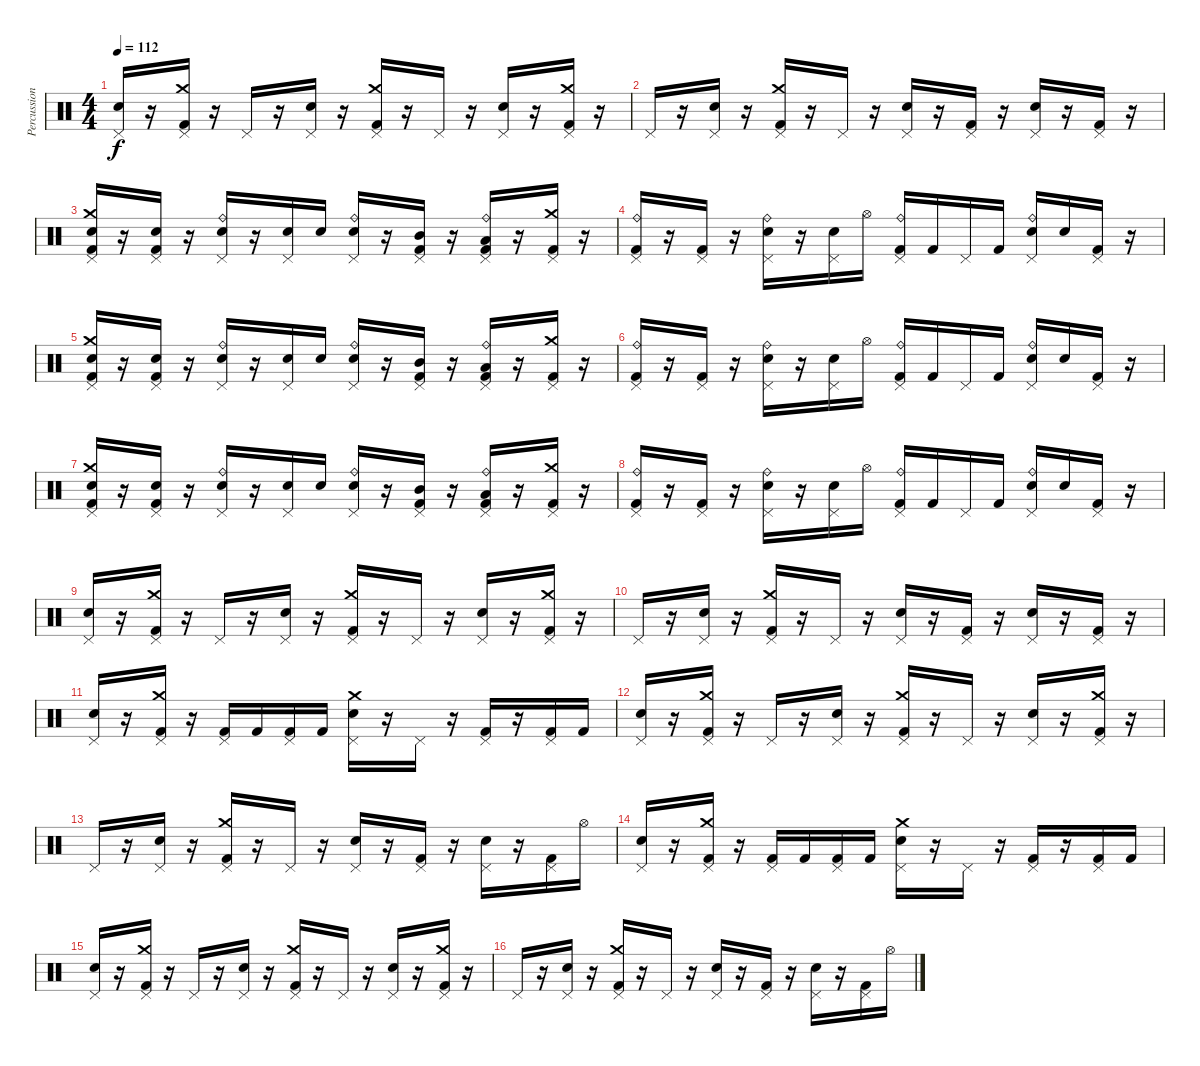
\track ("Percussion" "Percussion") {instrument percussion}
\staff {score}
\articulation defaults
\ts (4 4)
\tempo 112
\clef neutral
\ks c
("Pedal Hi-Hat (hit)" "Snare (hit) 2").16{dy f} r.16 ("Crash medium (hit)" "Pedal Hi-Hat (hit)" "Kick (hit) 2").16 r.16 "Pedal Hi-Hat (hit)".16 r.16 ("Pedal Hi-Hat (hit)" "Snare (hit) 2").16 r.16 ("Crash medium (hit)" "Pedal Hi-Hat (hit)" "Kick (hit) 2").16 r.16 "Pedal Hi-Hat (hit)".16 r.16 ("Pedal Hi-Hat (hit)" "Snare (hit) 2").16 r.16 ("Crash medium (hit)" "Pedal Hi-Hat (hit)" "Kick (hit) 2").16 r.16 |
"Pedal Hi-Hat (hit)".16 r.16 ("Pedal Hi-Hat (hit)" "Snare (hit) 2").16 r.16 ("Crash medium (hit)" "Pedal Hi-Hat (hit)" "Kick (hit) 2").16 r.16 "Pedal Hi-Hat (hit)".16 r.16 ("Pedal Hi-Hat (hit)" "Snare (hit) 2").16 r.16 ("Pedal Hi-Hat (hit)" "Kick (hit) 2").16 r.16 ("Pedal Hi-Hat (hit)" "Snare (hit) 2").16 r.16 ("Pedal Hi-Hat (hit)" "Kick (hit) 2").16 r.16 |
("Crash medium (hit)" "Pedal Hi-Hat (hit)" "Snare (hit) 2" "Kick (hit) 2").16 r.16 ("Pedal Hi-Hat (hit)" "Snare (hit) 2" "Kick (hit) 2").16 r.16 ("Ride (bell)" "Pedal Hi-Hat (hit)" "Snare (hit) 2").16 r.16 ("Pedal Hi-Hat (hit)" "Snare (hit) 2").16 "Snare (hit) 2".16 ("Ride (bell)" "Pedal Hi-Hat (hit)" "Snare (hit) 2").16 r.16 ("Pedal Hi-Hat (hit)" "Mid Tom (hit)" "Kick (hit) 2").16 r.16 ("Ride (bell)" "Pedal Hi-Hat (hit)" "Low Tom (hit)" "Kick (hit) 2").16 r.16 ("Crash medium (hit)" "Pedal Hi-Hat (hit)" "Kick (hit) 2").16 r.16 |
("Pedal Hi-Hat (hit)" "Ride (bell)" "Kick (hit) 2").16 r.16 ("Pedal Hi-Hat (hit)" "Kick (hit) 2").16 r.16 ("Pedal Hi-Hat (hit)" "Ride (bell)" "Snare (hit) 2").16 r.16 ("Pedal Hi-Hat (hit)" "Snare (hit) 2").16 "Hi-Hat (open)".16 ("Pedal Hi-Hat (hit)" "Ride (bell)" "Kick (hit) 2").16 "Kick (hit) 2".16 "Pedal Hi-Hat (hit)".16 "Kick (hit) 2".16 ("Pedal Hi-Hat (hit)" "Ride (bell)" "Snare (hit) 2").16 "Snare (hit) 2".16 ("Pedal Hi-Hat (hit)" "Kick (hit) 2").16 r.16 |
("Crash medium (hit)" "Pedal Hi-Hat (hit)" "Snare (hit) 2" "Kick (hit) 2").16 r.16 ("Pedal Hi-Hat (hit)" "Snare (hit) 2" "Kick (hit) 2").16 r.16 ("Ride (bell)" "Pedal Hi-Hat (hit)" "Snare (hit) 2").16 r.16 ("Pedal Hi-Hat (hit)" "Snare (hit) 2").16 "Snare (hit) 2".16 ("Ride (bell)" "Pedal Hi-Hat (hit)" "Snare (hit) 2").16 r.16 ("Pedal Hi-Hat (hit)" "Mid Tom (hit)" "Kick (hit) 2").16 r.16 ("Ride (bell)" "Pedal Hi-Hat (hit)" "Low Tom (hit)" "Kick (hit) 2").16 r.16 ("Crash medium (hit)" "Pedal Hi-Hat (hit)" "Kick (hit) 2").16 r.16 |
("Pedal Hi-Hat (hit)" "Ride (bell)" "Kick (hit) 2").16 r.16 ("Pedal Hi-Hat (hit)" "Kick (hit) 2").16 r.16 ("Pedal Hi-Hat (hit)" "Ride (bell)" "Snare (hit) 2").16 r.16 ("Pedal Hi-Hat (hit)" "Snare (hit) 2").16 "Hi-Hat (open)".16 ("Pedal Hi-Hat (hit)" "Ride (bell)" "Kick (hit) 2").16 "Kick (hit) 2".16 "Pedal Hi-Hat (hit)".16 "Kick (hit) 2".16 ("Pedal Hi-Hat (hit)" "Ride (bell)" "Snare (hit) 2").16 "Snare (hit) 2".16 ("Pedal Hi-Hat (hit)" "Kick (hit) 2").16 r.16 |
("Crash medium (hit)" "Pedal Hi-Hat (hit)" "Snare (hit) 2" "Kick (hit) 2").16 r.16 ("Pedal Hi-Hat (hit)" "Snare (hit) 2" "Kick (hit) 2").16 r.16 ("Ride (bell)" "Pedal Hi-Hat (hit)" "Snare (hit) 2").16 r.16 ("Pedal Hi-Hat (hit)" "Snare (hit) 2").16 "Snare (hit) 2".16 ("Ride (bell)" "Pedal Hi-Hat (hit)" "Snare (hit) 2").16 r.16 ("Pedal Hi-Hat (hit)" "Mid Tom (hit)" "Kick (hit) 2").16 r.16 ("Ride (bell)" "Pedal Hi-Hat (hit)" "Low Tom (hit)" "Kick (hit) 2").16 r.16 ("Crash medium (hit)" "Pedal Hi-Hat (hit)" "Kick (hit) 2").16 r.16 |
("Pedal Hi-Hat (hit)" "Ride (bell)" "Kick (hit) 2").16 r.16 ("Pedal Hi-Hat (hit)" "Kick (hit) 2").16 r.16 ("Pedal Hi-Hat (hit)" "Ride (bell)" "Snare (hit) 2").16 r.16 ("Pedal Hi-Hat (hit)" "Snare (hit) 2").16 "Hi-Hat (open)".16 ("Pedal Hi-Hat (hit)" "Ride (bell)" "Kick (hit) 2").16 "Kick (hit) 2".16 "Pedal Hi-Hat (hit)".16 "Kick (hit) 2".16 ("Pedal Hi-Hat (hit)" "Ride (bell)" "Snare (hit) 2").16 "Snare (hit) 2".16 ("Pedal Hi-Hat (hit)" "Kick (hit) 2").16 r.16 |
("Pedal Hi-Hat (hit)" "Snare (hit) 2").16 r.16 ("Crash medium (hit)" "Pedal Hi-Hat (hit)" "Kick (hit) 2").16 r.16 "Pedal Hi-Hat (hit)".16 r.16 ("Pedal Hi-Hat (hit)" "Snare (hit) 2").16 r.16 ("Crash medium (hit)" "Pedal Hi-Hat (hit)" "Kick (hit) 2").16 r.16 "Pedal Hi-Hat (hit)".16 r.16 ("Pedal Hi-Hat (hit)" "Snare (hit) 2").16 r.16 ("Crash medium (hit)" "Pedal Hi-Hat (hit)" "Kick (hit) 2").16 r.16 |
"Pedal Hi-Hat (hit)".16 r.16 ("Pedal Hi-Hat (hit)" "Snare (hit) 2").16 r.16 ("Crash medium (hit)" "Pedal Hi-Hat (hit)" "Kick (hit) 2").16 r.16 "Pedal Hi-Hat (hit)".16 r.16 ("Pedal Hi-Hat (hit)" "Snare (hit) 2").16 r.16 ("Pedal Hi-Hat (hit)" "Kick (hit) 2").16 r.16 ("Pedal Hi-Hat (hit)" "Snare (hit) 2").16 r.16 ("Pedal Hi-Hat (hit)" "Kick (hit) 2").16 r.16 |
("Pedal Hi-Hat (hit)" "Snare (hit) 2").16 r.16 ("Crash medium (hit)" "Pedal Hi-Hat (hit)" "Kick (hit) 2").16 r.16 ("Pedal Hi-Hat (hit)" "Kick (hit) 2").16 "Kick (hit) 2".16 ("Pedal Hi-Hat (hit)" "Kick (hit) 2").16 "Kick (hit) 2".16 ("Crash medium (hit)" "Pedal Hi-Hat (hit)" "Snare (hit) 2").16 r.16 "Pedal Hi-Hat (hit)".16 r.16 ("Pedal Hi-Hat (hit)" "Kick (hit) 2").16 r.16 ("Pedal Hi-Hat (hit)" "Kick (hit) 2").16 "Kick (hit) 2".16 |
("Pedal Hi-Hat (hit)" "Snare (hit) 2").16 r.16 ("Crash medium (hit)" "Pedal Hi-Hat (hit)" "Kick (hit) 2").16 r.16 "Pedal Hi-Hat (hit)".16 r.16 ("Pedal Hi-Hat (hit)" "Snare (hit) 2").16 r.16 ("Crash medium (hit)" "Pedal Hi-Hat (hit)" "Kick (hit) 2").16 r.16 "Pedal Hi-Hat (hit)".16 r.16 ("Pedal Hi-Hat (hit)" "Snare (hit) 2").16 r.16 ("Crash medium (hit)" "Pedal Hi-Hat (hit)" "Kick (hit) 2").16 r.16 |
"Pedal Hi-Hat (hit)".16 r.16 ("Pedal Hi-Hat (hit)" "Snare (hit) 2").16 r.16 ("Crash medium (hit)" "Pedal Hi-Hat (hit)" "Kick (hit) 2").16 r.16 "Pedal Hi-Hat (hit)".16 r.16 ("Pedal Hi-Hat (hit)" "Snare (hit) 2").16 r.16 ("Pedal Hi-Hat (hit)" "Kick (hit) 2").16 r.16 ("Pedal Hi-Hat (hit)" "Snare (hit) 2").16 r.16 ("Pedal Hi-Hat (hit)" "Kick (hit) 2").16 "Hi-Hat (open)".16 |
("Pedal Hi-Hat (hit)" "Snare (hit) 2").16 r.16 ("Crash medium (hit)" "Pedal Hi-Hat (hit)" "Kick (hit) 2").16 r.16 ("Pedal Hi-Hat (hit)" "Kick (hit) 2").16 "Kick (hit) 2".16 ("Pedal Hi-Hat (hit)" "Kick (hit) 2").16 "Kick (hit) 2".16 ("Crash medium (hit)" "Pedal Hi-Hat (hit)" "Snare (hit) 2").16 r.16 "Pedal Hi-Hat (hit)".16 r.16 ("Pedal Hi-Hat (hit)" "Kick (hit) 2").16 r.16 ("Pedal Hi-Hat (hit)" "Kick (hit) 2").16 "Kick (hit) 2".16 |
("Pedal Hi-Hat (hit)" "Snare (hit) 2").16 r.16 ("Crash medium (hit)" "Pedal Hi-Hat (hit)" "Kick (hit) 2").16 r.16 "Pedal Hi-Hat (hit)".16 r.16 ("Pedal Hi-Hat (hit)" "Snare (hit) 2").16 r.16 ("Crash medium (hit)" "Pedal Hi-Hat (hit)" "Kick (hit) 2").16 r.16 "Pedal Hi-Hat (hit)".16 r.16 ("Pedal Hi-Hat (hit)" "Snare (hit) 2").16 r.16 ("Crash medium (hit)" "Pedal Hi-Hat (hit)" "Kick (hit) 2").16 r.16 |
"Pedal Hi-Hat (hit)".16 r.16 ("Pedal Hi-Hat (hit)" "Snare (hit) 2").16 r.16 ("Crash medium (hit)" "Pedal Hi-Hat (hit)" "Kick (hit) 2").16 r.16 "Pedal Hi-Hat (hit)".16 r.16 ("Pedal Hi-Hat (hit)" "Snare (hit) 2").16 r.16 ("Pedal Hi-Hat (hit)" "Kick (hit) 2").16 r.16 ("Pedal Hi-Hat (hit)" "Snare (hit) 2").16 r.16 ("Pedal Hi-Hat (hit)" "Kick (hit) 2").16 "Hi-Hat (open)".16
